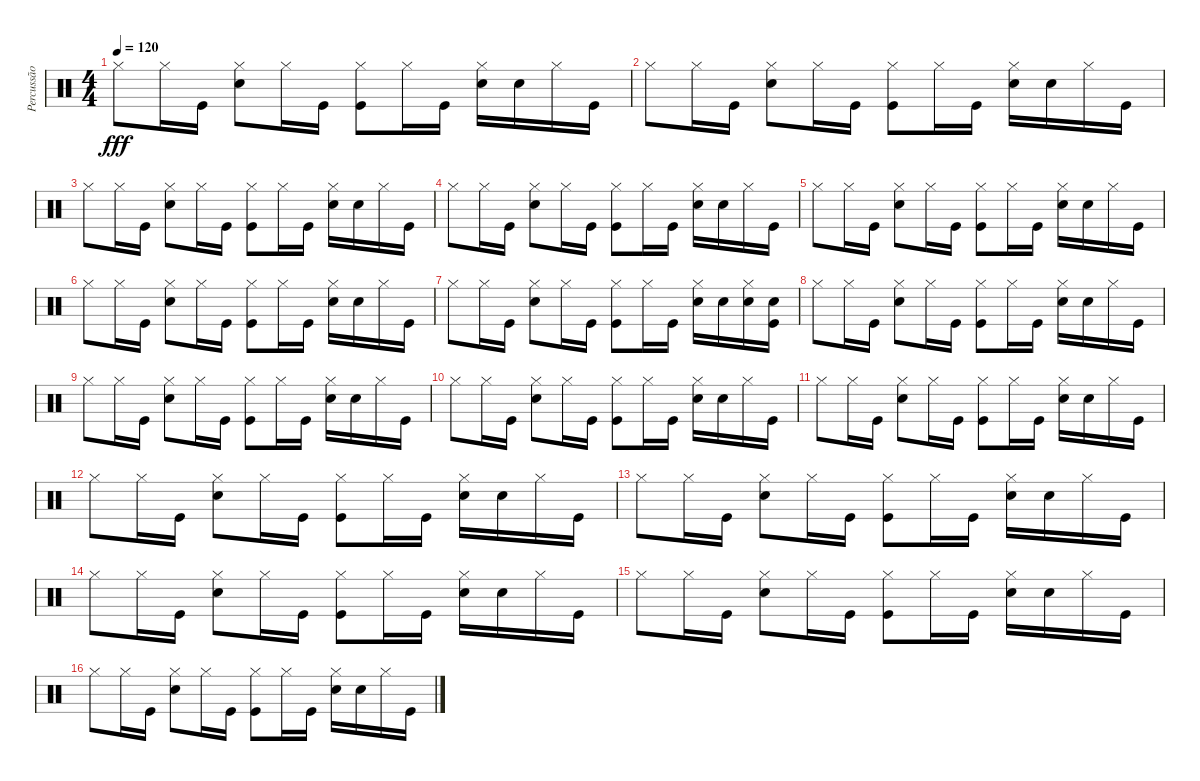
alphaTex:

\track ("Percussão" "Percussão") {instrument percussion}
\staff {score}
\articulation defaults
\ts (4 4)
\tempo 120
\clef neutral
\ks c "Hi-Hat (closed)".8{dy fff} "Hi-Hat (closed)".16 "Kick (hit)".16
("Hi-Hat (closed)" "Snare (hit) 2").8 "Hi-Hat (closed)".16 "Kick (hit)".16 ("Hi-Hat (closed)" "Kick (hit)").8 "Hi-Hat (closed)".16 "Kick (hit)".16 ("Hi-Hat (closed)" "Snare (hit) 2").16 "Snare (hit) 2".16 "Hi-Hat (closed)".16 "Kick (hit)".16 |
"Hi-Hat (closed)".8 "Hi-Hat (closed)".16 "Kick (hit)".16 ("Hi-Hat (closed)" "Snare (hit) 2").8 "Hi-Hat (closed)".16 "Kick (hit)".16 ("Hi-Hat (closed)" "Kick (hit)").8 "Hi-Hat (closed)".16 "Kick (hit)".16 ("Hi-Hat (closed)" "Snare (hit) 2").16 "Snare (hit) 2".16 "Hi-Hat (closed)".16 "Kick (hit)".16 |
"Hi-Hat (closed)".8 "Hi-Hat (closed)".16 "Kick (hit)".16 ("Hi-Hat (closed)" "Snare (hit) 2").8 "Hi-Hat (closed)".16 "Kick (hit)".16 ("Hi-Hat (closed)" "Kick (hit)").8 "Hi-Hat (closed)".16 "Kick (hit)".16 ("Hi-Hat (closed)" "Snare (hit) 2").16 "Snare (hit) 2".16 "Hi-Hat (closed)".16 "Kick (hit)".16 |
"Hi-Hat (closed)".8 "Hi-Hat (closed)".16 "Kick (hit)".16 ("Hi-Hat (closed)" "Snare (hit) 2").8 "Hi-Hat (closed)".16 "Kick (hit)".16 ("Hi-Hat (closed)" "Kick (hit)").8 "Hi-Hat (closed)".16 "Kick (hit)".16 ("Hi-Hat (closed)" "Snare (hit) 2").16 "Snare (hit) 2".16 "Hi-Hat (closed)".16 "Kick (hit)".16 |
"Hi-Hat (closed)".8 "Hi-Hat (closed)".16 "Kick (hit)".16 ("Hi-Hat (closed)" "Snare (hit) 2").8 "Hi-Hat (closed)".16 "Kick (hit)".16 ("Hi-Hat (closed)" "Kick (hit)").8 "Hi-Hat (closed)".16 "Kick (hit)".16 ("Hi-Hat (closed)" "Snare (hit) 2").16 "Snare (hit) 2".16 "Hi-Hat (closed)".16 "Kick (hit)".16 |
"Hi-Hat (closed)".8 "Hi-Hat (closed)".16 "Kick (hit)".16 ("Hi-Hat (closed)" "Snare (hit) 2").8 "Hi-Hat (closed)".16 "Kick (hit)".16 ("Hi-Hat (closed)" "Kick (hit)").8 "Hi-Hat (closed)".16 "Kick (hit)".16 ("Hi-Hat (closed)" "Snare (hit) 2").16 "Snare (hit) 2".16 "Hi-Hat (closed)".16 "Kick (hit)".16 |
"Hi-Hat (closed)".8 "Hi-Hat (closed)".16 "Kick (hit)".16 ("Hi-Hat (closed)" "Snare (hit) 2").8 "Hi-Hat (closed)".16 "Kick (hit)".16 ("Hi-Hat (closed)" "Kick (hit)").8 "Hi-Hat (closed)".16 "Kick (hit)".16 ("Hi-Hat (closed)" "Snare (hit) 2").16 "Snare (hit) 2".16 ("Hi-Hat (closed)" "Snare (hit) 2").16 ("Kick (hit)" "Snare (hit) 2").16 |
"Hi-Hat (closed)".8 "Hi-Hat (closed)".16 "Kick (hit)".16 ("Hi-Hat (closed)" "Snare (hit) 2").8 "Hi-Hat (closed)".16 "Kick (hit)".16 ("Hi-Hat (closed)" "Kick (hit)").8 "Hi-Hat (closed)".16 "Kick (hit)".16 ("Hi-Hat (closed)" "Snare (hit) 2").16 "Snare (hit) 2".16 "Hi-Hat (closed)".16 "Kick (hit)".16 |
"Hi-Hat (closed)".8 "Hi-Hat (closed)".16 "Kick (hit)".16 ("Hi-Hat (closed)" "Snare (hit) 2").8 "Hi-Hat (closed)".16 "Kick (hit)".16 ("Hi-Hat (closed)" "Kick (hit)").8 "Hi-Hat (closed)".16 "Kick (hit)".16 ("Hi-Hat (closed)" "Snare (hit) 2").16 "Snare (hit) 2".16 "Hi-Hat (closed)".16 "Kick (hit)".16 |
"Hi-Hat (closed)".8 "Hi-Hat (closed)".16 "Kick (hit)".16 ("Hi-Hat (closed)" "Snare (hit) 2").8 "Hi-Hat (closed)".16 "Kick (hit)".16 ("Hi-Hat (closed)" "Kick (hit)").8 "Hi-Hat (closed)".16 "Kick (hit)".16 ("Hi-Hat (closed)" "Snare (hit) 2").16 "Snare (hit) 2".16 "Hi-Hat (closed)".16 "Kick (hit)".16 |
"Hi-Hat (closed)".8 "Hi-Hat (closed)".16 "Kick (hit)".16 ("Hi-Hat (closed)" "Snare (hit) 2").8 "Hi-Hat (closed)".16 "Kick (hit)".16 ("Hi-Hat (closed)" "Kick (hit)").8 "Hi-Hat (closed)".16 "Kick (hit)".16 ("Hi-Hat (closed)" "Snare (hit) 2").16 "Snare (hit) 2".16 "Hi-Hat (closed)".16 "Kick (hit)".16 |
"Hi-Hat (closed)".8 "Hi-Hat (closed)".16 "Kick (hit)".16 ("Hi-Hat (closed)" "Snare (hit) 2").8 "Hi-Hat (closed)".16 "Kick (hit)".16 ("Hi-Hat (closed)" "Kick (hit)").8 "Hi-Hat (closed)".16 "Kick (hit)".16 ("Hi-Hat (closed)" "Snare (hit) 2").16 "Snare (hit) 2".16 "Hi-Hat (closed)".16 "Kick (hit)".16 |
"Hi-Hat (closed)".8 "Hi-Hat (closed)".16 "Kick (hit)".16 ("Hi-Hat (closed)" "Snare (hit) 2").8 "Hi-Hat (closed)".16 "Kick (hit)".16 ("Hi-Hat (closed)" "Kick (hit)").8 "Hi-Hat (closed)".16 "Kick (hit)".16 ("Hi-Hat (closed)" "Snare (hit) 2").16 "Snare (hit) 2".16 "Hi-Hat (closed)".16 "Kick (hit)".16 |
"Hi-Hat (closed)".8 "Hi-Hat (closed)".16 "Kick (hit)".16 ("Hi-Hat (closed)" "Snare (hit) 2").8 "Hi-Hat (closed)".16 "Kick (hit)".16 ("Hi-Hat (closed)" "Kick (hit)").8 "Hi-Hat (closed)".16 "Kick (hit)".16 ("Hi-Hat (closed)" "Snare (hit) 2").16 "Snare (hit) 2".16 "Hi-Hat (closed)".16 "Kick (hit)".16 |
"Hi-Hat (closed)".8 "Hi-Hat (closed)".16 "Kick (hit)".16 ("Hi-Hat (closed)" "Snare (hit) 2").8 "Hi-Hat (closed)".16 "Kick (hit)".16 ("Hi-Hat (closed)" "Kick (hit)").8 "Hi-Hat (closed)".16 "Kick (hit)".16 ("Hi-Hat (closed)" "Snare (hit) 2").16 "Snare (hit) 2".16 "Hi-Hat (closed)".16 "Kick (hit)".16 |
"Hi-Hat (closed)".8 "Hi-Hat (closed)".16 "Kick (hit)".16 ("Hi-Hat (closed)" "Snare (hit) 2").8 "Hi-Hat (closed)".16 "Kick (hit)".16 ("Hi-Hat (closed)" "Kick (hit)").8 "Hi-Hat (closed)".16 "Kick (hit)".16 ("Hi-Hat (closed)" "Snare (hit) 2").16 "Snare (hit) 2".16 "Hi-Hat (closed)".16 "Kick (hit)".16
